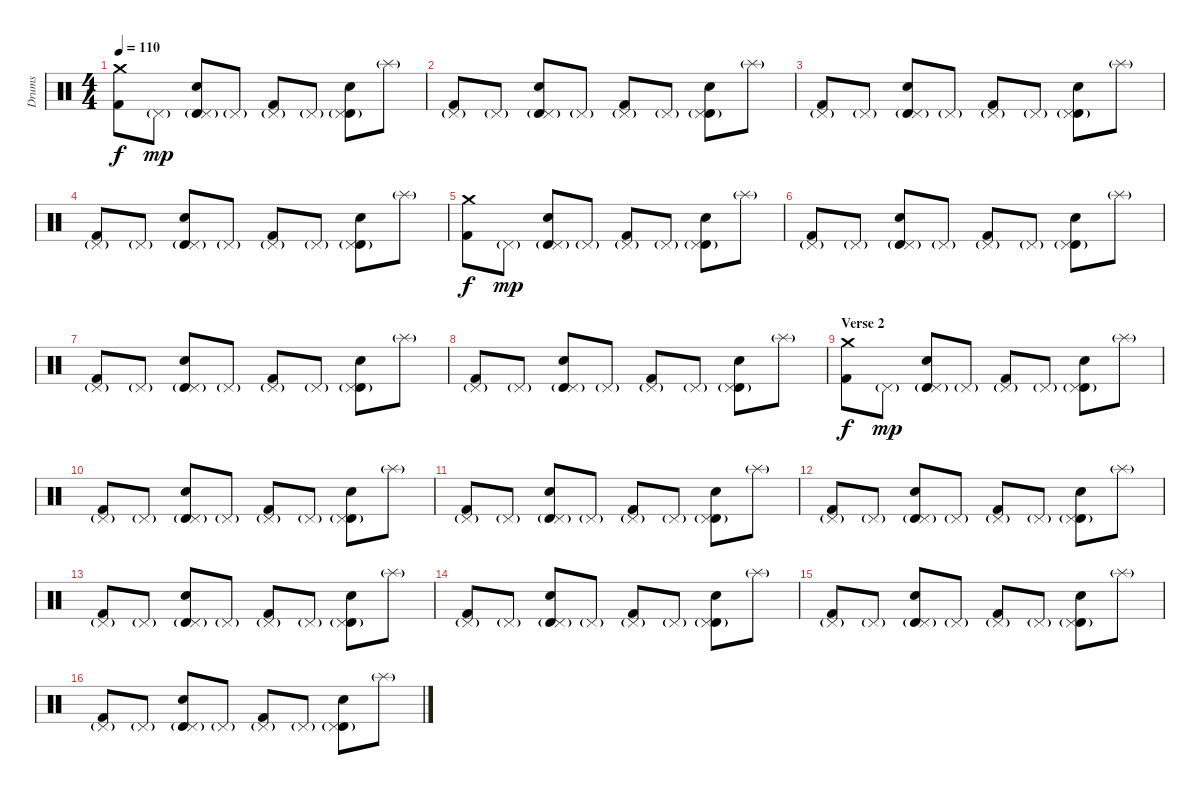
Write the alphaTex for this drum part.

\track ("Drums" "Drums") {instrument percussion}
\staff {score}
\articulation defaults
\ts (4 4)
\tempo 110
\clef neutral
\ks c
("Kick (hit) 2" "Crash medium (hit)").8{dy f} "Pedal Hi-Hat (hit)"{g}.8{dy mp} ("Timbale high (hit)" "Electric Snare (hit)" "Pedal Hi-Hat (hit)"{g}).8 "Pedal Hi-Hat (hit)"{g}.8 ("Kick (hit) 2" "Pedal Hi-Hat (hit)"{g}).8 "Pedal Hi-Hat (hit)"{g}.8 ("Timbale high (hit)" "Electric Snare (hit)" "Pedal Hi-Hat (hit)"{g}).8 "Splash (hit)"{g}.8 |
("Kick (hit) 2" "Pedal Hi-Hat (hit)"{g}).8 "Pedal Hi-Hat (hit)"{g}.8 ("Timbale high (hit)" "Electric Snare (hit)" "Pedal Hi-Hat (hit)"{g}).8 "Pedal Hi-Hat (hit)"{g}.8 ("Kick (hit) 2" "Pedal Hi-Hat (hit)"{g}).8 "Pedal Hi-Hat (hit)"{g}.8 ("Timbale high (hit)" "Electric Snare (hit)" "Pedal Hi-Hat (hit)"{g}).8 "Splash (hit)"{g}.8 |
("Kick (hit) 2" "Pedal Hi-Hat (hit)"{g}).8 "Pedal Hi-Hat (hit)"{g}.8 ("Timbale high (hit)" "Electric Snare (hit)" "Pedal Hi-Hat (hit)"{g}).8 "Pedal Hi-Hat (hit)"{g}.8 ("Kick (hit) 2" "Pedal Hi-Hat (hit)"{g}).8 "Pedal Hi-Hat (hit)"{g}.8 ("Timbale high (hit)" "Electric Snare (hit)" "Pedal Hi-Hat (hit)"{g}).8 "Splash (hit)"{g}.8 |
("Kick (hit) 2" "Pedal Hi-Hat (hit)"{g}).8 "Pedal Hi-Hat (hit)"{g}.8 ("Timbale high (hit)" "Electric Snare (hit)" "Pedal Hi-Hat (hit)"{g}).8 "Pedal Hi-Hat (hit)"{g}.8 ("Kick (hit) 2" "Pedal Hi-Hat (hit)"{g}).8 "Pedal Hi-Hat (hit)"{g}.8 ("Timbale high (hit)" "Electric Snare (hit)" "Pedal Hi-Hat (hit)"{g}).8 "Splash (hit)"{g}.8 |
("Kick (hit) 2" "Crash medium (hit)").8{dy f} "Pedal Hi-Hat (hit)"{g}.8{dy mp} ("Timbale high (hit)" "Electric Snare (hit)" "Pedal Hi-Hat (hit)"{g}).8 "Pedal Hi-Hat (hit)"{g}.8 ("Kick (hit) 2" "Pedal Hi-Hat (hit)"{g}).8 "Pedal Hi-Hat (hit)"{g}.8 ("Timbale high (hit)" "Electric Snare (hit)" "Pedal Hi-Hat (hit)"{g}).8 "Splash (hit)"{g}.8 |
("Kick (hit) 2" "Pedal Hi-Hat (hit)"{g}).8 "Pedal Hi-Hat (hit)"{g}.8 ("Timbale high (hit)" "Electric Snare (hit)" "Pedal Hi-Hat (hit)"{g}).8 "Pedal Hi-Hat (hit)"{g}.8 ("Kick (hit) 2" "Pedal Hi-Hat (hit)"{g}).8 "Pedal Hi-Hat (hit)"{g}.8 ("Timbale high (hit)" "Electric Snare (hit)" "Pedal Hi-Hat (hit)"{g}).8 "Splash (hit)"{g}.8 |
("Kick (hit) 2" "Pedal Hi-Hat (hit)"{g}).8 "Pedal Hi-Hat (hit)"{g}.8 ("Timbale high (hit)" "Electric Snare (hit)" "Pedal Hi-Hat (hit)"{g}).8 "Pedal Hi-Hat (hit)"{g}.8 ("Kick (hit) 2" "Pedal Hi-Hat (hit)"{g}).8 "Pedal Hi-Hat (hit)"{g}.8 ("Timbale high (hit)" "Electric Snare (hit)" "Pedal Hi-Hat (hit)"{g}).8 "Splash (hit)"{g}.8 |
("Kick (hit) 2" "Pedal Hi-Hat (hit)"{g}).8 "Pedal Hi-Hat (hit)"{g}.8 ("Timbale high (hit)" "Electric Snare (hit)" "Pedal Hi-Hat (hit)"{g}).8 "Pedal Hi-Hat (hit)"{g}.8 ("Kick (hit) 2" "Pedal Hi-Hat (hit)"{g}).8 "Pedal Hi-Hat (hit)"{g}.8 ("Timbale high (hit)" "Electric Snare (hit)" "Pedal Hi-Hat (hit)"{g}).8 "Splash (hit)"{g}.8 |
\section ("" "Verse 2")
("Kick (hit) 2" "Crash medium (hit)").8{dy f} "Pedal Hi-Hat (hit)"{g}.8{dy mp} ("Timbale high (hit)" "Electric Snare (hit)" "Pedal Hi-Hat (hit)"{g}).8 "Pedal Hi-Hat (hit)"{g}.8 ("Kick (hit) 2" "Pedal Hi-Hat (hit)"{g}).8 "Pedal Hi-Hat (hit)"{g}.8 ("Timbale high (hit)" "Electric Snare (hit)" "Pedal Hi-Hat (hit)"{g}).8 "Splash (hit)"{g}.8 |
("Kick (hit) 2" "Pedal Hi-Hat (hit)"{g}).8 "Pedal Hi-Hat (hit)"{g}.8 ("Timbale high (hit)" "Electric Snare (hit)" "Pedal Hi-Hat (hit)"{g}).8 "Pedal Hi-Hat (hit)"{g}.8 ("Kick (hit) 2" "Pedal Hi-Hat (hit)"{g}).8 "Pedal Hi-Hat (hit)"{g}.8 ("Timbale high (hit)" "Electric Snare (hit)" "Pedal Hi-Hat (hit)"{g}).8 "Splash (hit)"{g}.8 |
("Kick (hit) 2" "Pedal Hi-Hat (hit)"{g}).8 "Pedal Hi-Hat (hit)"{g}.8 ("Timbale high (hit)" "Electric Snare (hit)" "Pedal Hi-Hat (hit)"{g}).8 "Pedal Hi-Hat (hit)"{g}.8 ("Kick (hit) 2" "Pedal Hi-Hat (hit)"{g}).8 "Pedal Hi-Hat (hit)"{g}.8 ("Timbale high (hit)" "Electric Snare (hit)" "Pedal Hi-Hat (hit)"{g}).8 "Splash (hit)"{g}.8 |
("Kick (hit) 2" "Pedal Hi-Hat (hit)"{g}).8 "Pedal Hi-Hat (hit)"{g}.8 ("Timbale high (hit)" "Electric Snare (hit)" "Pedal Hi-Hat (hit)"{g}).8 "Pedal Hi-Hat (hit)"{g}.8 ("Kick (hit) 2" "Pedal Hi-Hat (hit)"{g}).8 "Pedal Hi-Hat (hit)"{g}.8 ("Timbale high (hit)" "Electric Snare (hit)" "Pedal Hi-Hat (hit)"{g}).8 "Splash (hit)"{g}.8 |
("Kick (hit) 2" "Pedal Hi-Hat (hit)"{g}).8 "Pedal Hi-Hat (hit)"{g}.8 ("Timbale high (hit)" "Electric Snare (hit)" "Pedal Hi-Hat (hit)"{g}).8 "Pedal Hi-Hat (hit)"{g}.8 ("Kick (hit) 2" "Pedal Hi-Hat (hit)"{g}).8 "Pedal Hi-Hat (hit)"{g}.8 ("Timbale high (hit)" "Electric Snare (hit)" "Pedal Hi-Hat (hit)"{g}).8 "Splash (hit)"{g}.8 |
("Kick (hit) 2" "Pedal Hi-Hat (hit)"{g}).8 "Pedal Hi-Hat (hit)"{g}.8 ("Timbale high (hit)" "Electric Snare (hit)" "Pedal Hi-Hat (hit)"{g}).8 "Pedal Hi-Hat (hit)"{g}.8 ("Kick (hit) 2" "Pedal Hi-Hat (hit)"{g}).8 "Pedal Hi-Hat (hit)"{g}.8 ("Timbale high (hit)" "Electric Snare (hit)" "Pedal Hi-Hat (hit)"{g}).8 "Splash (hit)"{g}.8 |
("Kick (hit) 2" "Pedal Hi-Hat (hit)"{g}).8 "Pedal Hi-Hat (hit)"{g}.8 ("Timbale high (hit)" "Electric Snare (hit)" "Pedal Hi-Hat (hit)"{g}).8 "Pedal Hi-Hat (hit)"{g}.8 ("Kick (hit) 2" "Pedal Hi-Hat (hit)"{g}).8 "Pedal Hi-Hat (hit)"{g}.8 ("Timbale high (hit)" "Electric Snare (hit)" "Pedal Hi-Hat (hit)"{g}).8 "Splash (hit)"{g}.8 |
("Kick (hit) 2" "Pedal Hi-Hat (hit)"{g}).8 "Pedal Hi-Hat (hit)"{g}.8 ("Timbale high (hit)" "Electric Snare (hit)" "Pedal Hi-Hat (hit)"{g}).8 "Pedal Hi-Hat (hit)"{g}.8 ("Kick (hit) 2" "Pedal Hi-Hat (hit)"{g}).8 "Pedal Hi-Hat (hit)"{g}.8 ("Timbale high (hit)" "Electric Snare (hit)" "Pedal Hi-Hat (hit)"{g}).8 "Splash (hit)"{g}.8
